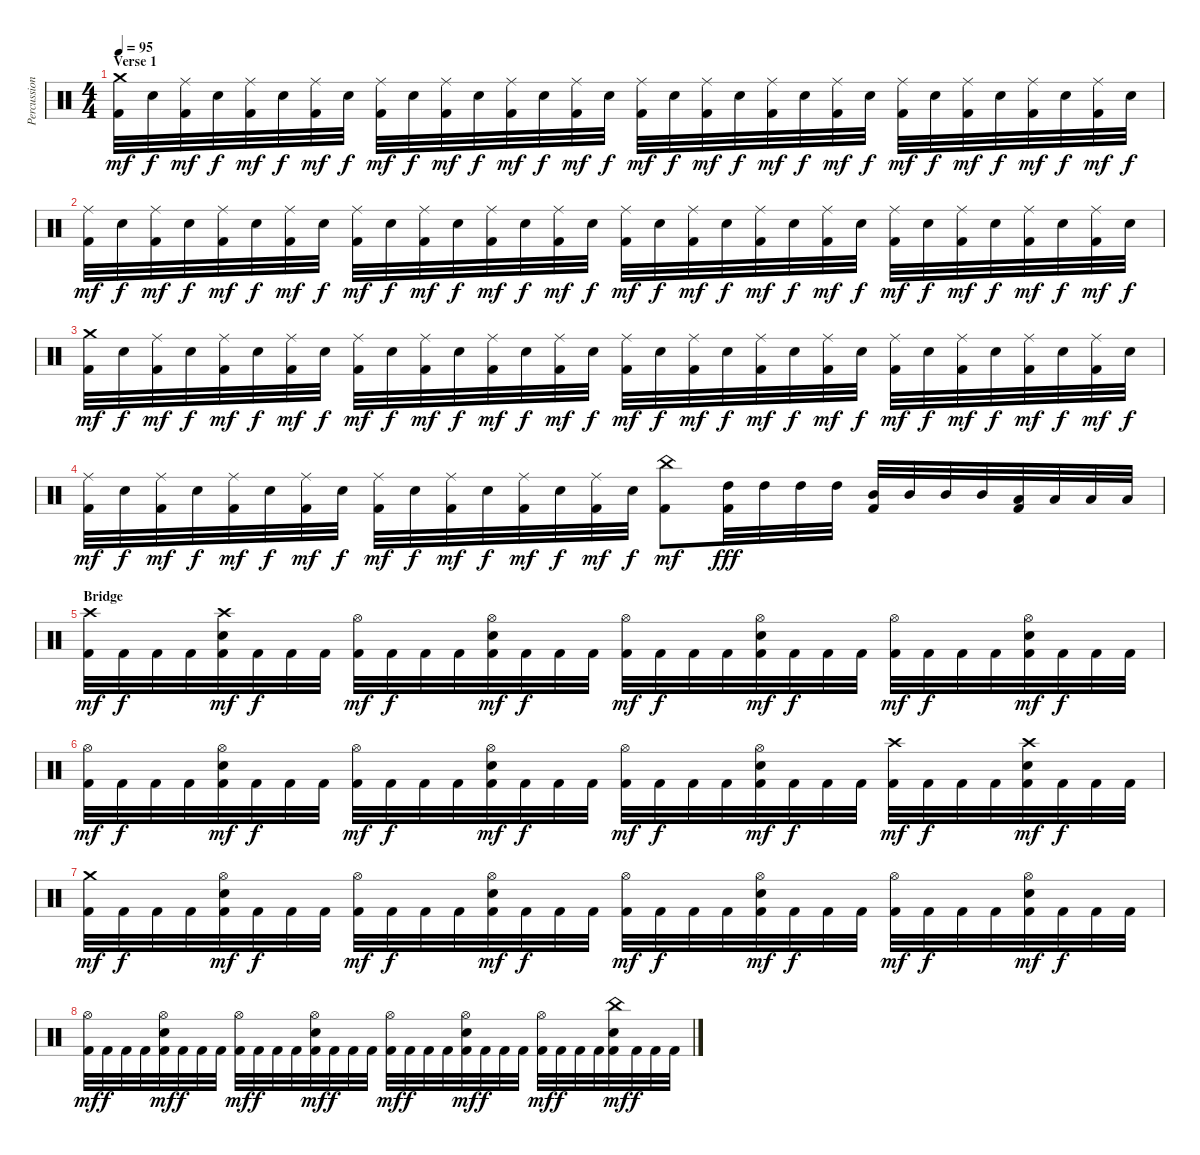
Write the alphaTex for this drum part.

\track ("Percussion" "Percussion") {instrument percussion}
\staff {score}
\articulation defaults
\ts (4 4)
\section ("" "Verse 1")
\tempo 95
\clef neutral
\ks c
("Crash medium (hit)" "Kick (hit) 2").32{dy mf} "Electric Snare (hit)".32{dy f} ("Ride (middle)" "Kick (hit) 2").32{dy mf} "Electric Snare (hit)".32{dy f} ("Ride (middle)" "Kick (hit) 2").32{dy mf} "Electric Snare (hit)".32{dy f} ("Ride (middle)" "Kick (hit) 2").32{dy mf} "Electric Snare (hit)".32{dy f} ("Ride (middle)" "Kick (hit) 2").32{dy mf} "Electric Snare (hit)".32{dy f} ("Ride (middle)" "Kick (hit) 2").32{dy mf} "Electric Snare (hit)".32{dy f} ("Ride (middle)" "Kick (hit) 2").32{dy mf} "Electric Snare (hit)".32{dy f} ("Ride (middle)" "Kick (hit) 2").32{dy mf} "Electric Snare (hit)".32{dy f} ("Ride (middle)" "Kick (hit) 2").32{dy mf} "Electric Snare (hit)".32{dy f} ("Ride (middle)" "Kick (hit) 2").32{dy mf} "Electric Snare (hit)".32{dy f} ("Ride (middle)" "Kick (hit) 2").32{dy mf} "Electric Snare (hit)".32{dy f} ("Ride (middle)" "Kick (hit) 2").32{dy mf} "Electric Snare (hit)".32{dy f} ("Ride (middle)" "Kick (hit) 2").32{dy mf} "Electric Snare (hit)".32{dy f} ("Ride (middle)" "Kick (hit) 2").32{dy mf} "Electric Snare (hit)".32{dy f} ("Ride (middle)" "Kick (hit) 2").32{dy mf} "Electric Snare (hit)".32{dy f} ("Ride (middle)" "Kick (hit) 2").32{dy mf} "Electric Snare (hit)".32{dy f} |
("Ride (middle)" "Kick (hit) 2").32{dy mf} "Electric Snare (hit)".32{dy f} ("Ride (middle)" "Kick (hit) 2").32{dy mf} "Electric Snare (hit)".32{dy f} ("Ride (middle)" "Kick (hit) 2").32{dy mf} "Electric Snare (hit)".32{dy f} ("Ride (middle)" "Kick (hit) 2").32{dy mf} "Electric Snare (hit)".32{dy f} ("Ride (middle)" "Kick (hit) 2").32{dy mf} "Electric Snare (hit)".32{dy f} ("Ride (middle)" "Kick (hit) 2").32{dy mf} "Electric Snare (hit)".32{dy f} ("Ride (middle)" "Kick (hit) 2").32{dy mf} "Electric Snare (hit)".32{dy f} ("Ride (middle)" "Kick (hit) 2").32{dy mf} "Electric Snare (hit)".32{dy f} ("Ride (middle)" "Kick (hit) 2").32{dy mf} "Electric Snare (hit)".32{dy f} ("Ride (middle)" "Kick (hit) 2").32{dy mf} "Electric Snare (hit)".32{dy f} ("Ride (middle)" "Kick (hit) 2").32{dy mf} "Electric Snare (hit)".32{dy f} ("Ride (middle)" "Kick (hit) 2").32{dy mf} "Electric Snare (hit)".32{dy f} ("Ride (middle)" "Kick (hit) 2").32{dy mf} "Electric Snare (hit)".32{dy f} ("Ride (middle)" "Kick (hit) 2").32{dy mf} "Electric Snare (hit)".32{dy f} ("Ride (middle)" "Kick (hit) 2").32{dy mf} "Electric Snare (hit)".32{dy f} ("Ride (middle)" "Kick (hit) 2").32{dy mf} "Electric Snare (hit)".32{dy f} |
("Crash medium (hit)" "Kick (hit) 2").32{dy mf} "Electric Snare (hit)".32{dy f} ("Ride (middle)" "Kick (hit) 2").32{dy mf} "Electric Snare (hit)".32{dy f} ("Ride (middle)" "Kick (hit) 2").32{dy mf} "Electric Snare (hit)".32{dy f} ("Ride (middle)" "Kick (hit) 2").32{dy mf} "Electric Snare (hit)".32{dy f} ("Ride (middle)" "Kick (hit) 2").32{dy mf} "Electric Snare (hit)".32{dy f} ("Ride (middle)" "Kick (hit) 2").32{dy mf} "Electric Snare (hit)".32{dy f} ("Ride (middle)" "Kick (hit) 2").32{dy mf} "Electric Snare (hit)".32{dy f} ("Ride (middle)" "Kick (hit) 2").32{dy mf} "Electric Snare (hit)".32{dy f} ("Ride (middle)" "Kick (hit) 2").32{dy mf} "Electric Snare (hit)".32{dy f} ("Ride (middle)" "Kick (hit) 2").32{dy mf} "Electric Snare (hit)".32{dy f} ("Ride (middle)" "Kick (hit) 2").32{dy mf} "Electric Snare (hit)".32{dy f} ("Ride (middle)" "Kick (hit) 2").32{dy mf} "Electric Snare (hit)".32{dy f} ("Ride (middle)" "Kick (hit) 2").32{dy mf} "Electric Snare (hit)".32{dy f} ("Ride (middle)" "Kick (hit) 2").32{dy mf} "Electric Snare (hit)".32{dy f} ("Ride (middle)" "Kick (hit) 2").32{dy mf} "Electric Snare (hit)".32{dy f} ("Ride (middle)" "Kick (hit) 2").32{dy mf} "Electric Snare (hit)".32{dy f} |
("Ride (middle)" "Kick (hit) 2").32{dy mf} "Electric Snare (hit)".32{dy f} ("Ride (middle)" "Kick (hit) 2").32{dy mf} "Electric Snare (hit)".32{dy f} ("Ride (middle)" "Kick (hit) 2").32{dy mf} "Electric Snare (hit)".32{dy f} ("Ride (middle)" "Kick (hit) 2").32{dy mf} "Electric Snare (hit)".32{dy f} ("Ride (middle)" "Kick (hit) 2").32{dy mf} "Electric Snare (hit)".32{dy f} ("Ride (middle)" "Kick (hit) 2").32{dy mf} "Electric Snare (hit)".32{dy f} ("Ride (middle)" "Kick (hit) 2").32{dy mf} "Electric Snare (hit)".32{dy f} ("Ride (middle)" "Kick (hit) 2").32{dy mf} "Electric Snare (hit)".32{dy f} ("China (hit)" "Kick (hit) 2").8{dy mf} ("High Tom (hit)" "Kick (hit) 2").32{dy fff} "High Tom (hit)".32 "High Tom (hit)".32 "High Tom (hit)".32 ("Mid Tom (hit)" "Kick (hit) 2").32 "Mid Tom (hit)".32 "Mid Tom (hit)".32 "Mid Tom (hit)".32 ("Low Tom (hit)" "Kick (hit) 2").32 "Low Tom (hit)".32 "Low Tom (hit)".32 "Low Tom (hit)".32 |
\section ("" "Bridge")
("Crash high (hit)" "Kick (hit) 2").32{dy mf} "Kick (hit) 2".32{dy f} "Kick (hit) 2".32 "Kick (hit) 2".32 ("Crash high (hit)" "Electric Snare (hit)" "Kick (hit) 2").32{dy mf} "Kick (hit) 2".32{dy f} "Kick (hit) 2".32 "Kick (hit) 2".32 ("Hi-Hat (open)" "Kick (hit) 2").32{dy mf} "Kick (hit) 2".32{dy f} "Kick (hit) 2".32 "Kick (hit) 2".32 ("Hi-Hat (open)" "Electric Snare (hit)" "Kick (hit) 2").32{dy mf} "Kick (hit) 2".32{dy f} "Kick (hit) 2".32 "Kick (hit) 2".32 ("Hi-Hat (open)" "Kick (hit) 2").32{dy mf} "Kick (hit) 2".32{dy f} "Kick (hit) 2".32 "Kick (hit) 2".32 ("Hi-Hat (open)" "Electric Snare (hit)" "Kick (hit) 2").32{dy mf} "Kick (hit) 2".32{dy f} "Kick (hit) 2".32 "Kick (hit) 2".32 ("Hi-Hat (open)" "Kick (hit) 2").32{dy mf} "Kick (hit) 2".32{dy f} "Kick (hit) 2".32 "Kick (hit) 2".32 ("Hi-Hat (open)" "Electric Snare (hit)" "Kick (hit) 2").32{dy mf} "Kick (hit) 2".32{dy f} "Kick (hit) 2".32 "Kick (hit) 2".32 |
("Hi-Hat (open)" "Kick (hit) 2").32{dy mf} "Kick (hit) 2".32{dy f} "Kick (hit) 2".32 "Kick (hit) 2".32 ("Hi-Hat (open)" "Electric Snare (hit)" "Kick (hit) 2").32{dy mf} "Kick (hit) 2".32{dy f} "Kick (hit) 2".32 "Kick (hit) 2".32 ("Hi-Hat (open)" "Kick (hit) 2").32{dy mf} "Kick (hit) 2".32{dy f} "Kick (hit) 2".32 "Kick (hit) 2".32 ("Hi-Hat (open)" "Electric Snare (hit)" "Kick (hit) 2").32{dy mf} "Kick (hit) 2".32{dy f} "Kick (hit) 2".32 "Kick (hit) 2".32 ("Hi-Hat (open)" "Kick (hit) 2").32{dy mf} "Kick (hit) 2".32{dy f} "Kick (hit) 2".32 "Kick (hit) 2".32 ("Hi-Hat (open)" "Electric Snare (hit)" "Kick (hit) 2").32{dy mf} "Kick (hit) 2".32{dy f} "Kick (hit) 2".32 "Kick (hit) 2".32 ("Crash high (hit)" "Kick (hit) 2").32{dy mf} "Kick (hit) 2".32{dy f} "Kick (hit) 2".32 "Kick (hit) 2".32 ("Crash high (hit)" "Electric Snare (hit)" "Kick (hit) 2").32{dy mf} "Kick (hit) 2".32{dy f} "Kick (hit) 2".32 "Kick (hit) 2".32 |
("Crash medium (hit)" "Kick (hit) 2").32{dy mf} "Kick (hit) 2".32{dy f} "Kick (hit) 2".32 "Kick (hit) 2".32 ("Hi-Hat (open)" "Electric Snare (hit)" "Kick (hit) 2").32{dy mf} "Kick (hit) 2".32{dy f} "Kick (hit) 2".32 "Kick (hit) 2".32 ("Hi-Hat (open)" "Kick (hit) 2").32{dy mf} "Kick (hit) 2".32{dy f} "Kick (hit) 2".32 "Kick (hit) 2".32 ("Hi-Hat (open)" "Electric Snare (hit)" "Kick (hit) 2").32{dy mf} "Kick (hit) 2".32{dy f} "Kick (hit) 2".32 "Kick (hit) 2".32 ("Hi-Hat (open)" "Kick (hit) 2").32{dy mf} "Kick (hit) 2".32{dy f} "Kick (hit) 2".32 "Kick (hit) 2".32 ("Hi-Hat (open)" "Electric Snare (hit)" "Kick (hit) 2").32{dy mf} "Kick (hit) 2".32{dy f} "Kick (hit) 2".32 "Kick (hit) 2".32 ("Hi-Hat (open)" "Kick (hit) 2").32{dy mf} "Kick (hit) 2".32{dy f} "Kick (hit) 2".32 "Kick (hit) 2".32 ("Hi-Hat (open)" "Electric Snare (hit)" "Kick (hit) 2").32{dy mf} "Kick (hit) 2".32{dy f} "Kick (hit) 2".32 "Kick (hit) 2".32 |
("Hi-Hat (open)" "Kick (hit) 2").32{dy mf} "Kick (hit) 2".32{dy f} "Kick (hit) 2".32 "Kick (hit) 2".32 ("Hi-Hat (open)" "Electric Snare (hit)" "Kick (hit) 2").32{dy mf} "Kick (hit) 2".32{dy f} "Kick (hit) 2".32 "Kick (hit) 2".32 ("Hi-Hat (open)" "Kick (hit) 2").32{dy mf} "Kick (hit) 2".32{dy f} "Kick (hit) 2".32 "Kick (hit) 2".32 ("Hi-Hat (open)" "Electric Snare (hit)" "Kick (hit) 2").32{dy mf} "Kick (hit) 2".32{dy f} "Kick (hit) 2".32 "Kick (hit) 2".32 ("Hi-Hat (open)" "Kick (hit) 2").32{dy mf} "Kick (hit) 2".32{dy f} "Kick (hit) 2".32 "Kick (hit) 2".32 ("Hi-Hat (open)" "Electric Snare (hit)" "Kick (hit) 2").32{dy mf} "Kick (hit) 2".32{dy f} "Kick (hit) 2".32 "Kick (hit) 2".32 ("Hi-Hat (open)" "Kick (hit) 2").32{dy mf} "Kick (hit) 2".32{dy f} "Kick (hit) 2".32 "Kick (hit) 2".32 ("China (hit)" "Electric Snare (hit)" "Kick (hit) 2").32{dy mf} "Kick (hit) 2".32{dy f} "Kick (hit) 2".32 "Kick (hit) 2".32
